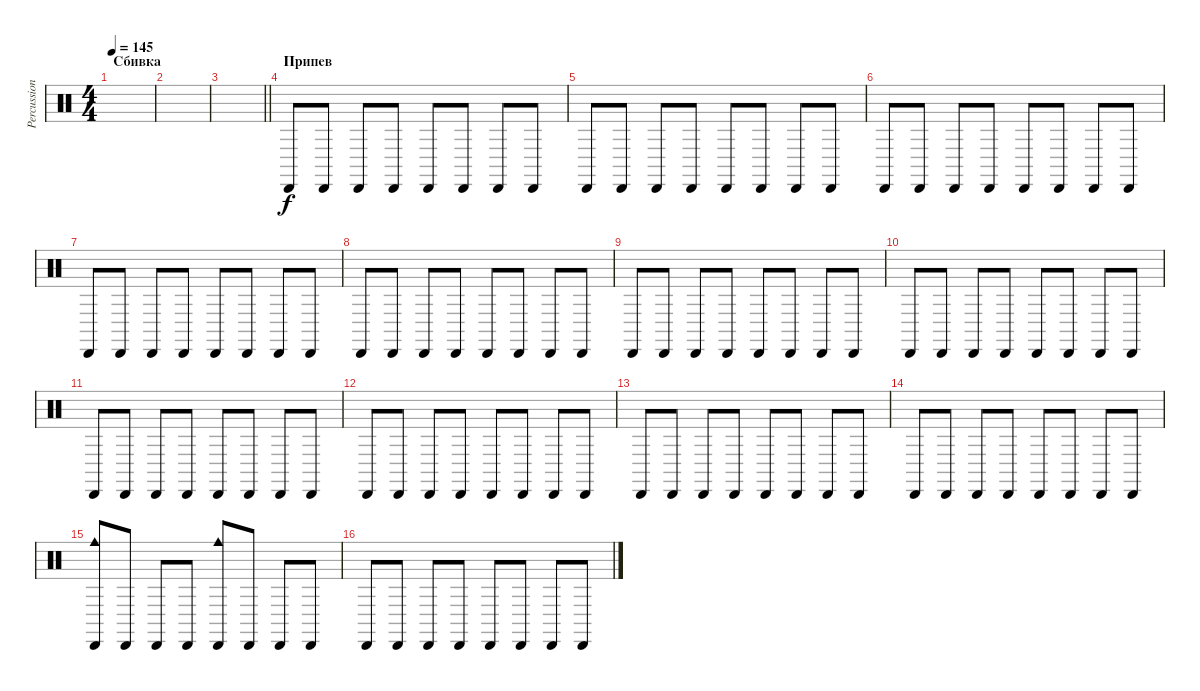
\track ("Percussion" "Percussion") {instrument percussion}
\staff {score}
\articulation defaults
\ts (4 4)
\section ("" "Сбивка")
\tempo 145
\clef neutral
\ks c
|
|
\barLineRight lightlight
|
\section ("" "Припев")
"Cabasa (hit)".8 "Cabasa (hit)".8 "Cabasa (hit)".8 "Cabasa (hit)".8 "Cabasa (hit)".8 "Cabasa (hit)".8 "Cabasa (hit)".8 "Cabasa (hit)".8 |
"Cabasa (hit)".8 "Cabasa (hit)".8 "Cabasa (hit)".8 "Cabasa (hit)".8 "Cabasa (hit)".8 "Cabasa (hit)".8 "Cabasa (hit)".8 "Cabasa (hit)".8 |
"Cabasa (hit)".8 "Cabasa (hit)".8 "Cabasa (hit)".8 "Cabasa (hit)".8 "Cabasa (hit)".8 "Cabasa (hit)".8 "Cabasa (hit)".8 "Cabasa (hit)".8 |
"Cabasa (hit)".8 "Cabasa (hit)".8 "Cabasa (hit)".8 "Cabasa (hit)".8 "Cabasa (hit)".8 "Cabasa (hit)".8 "Cabasa (hit)".8 "Cabasa (hit)".8 |
"Cabasa (hit)".8 "Cabasa (hit)".8 "Cabasa (hit)".8 "Cabasa (hit)".8 "Cabasa (hit)".8 "Cabasa (hit)".8 "Cabasa (hit)".8 "Cabasa (hit)".8 |
"Cabasa (hit)".8 "Cabasa (hit)".8 "Cabasa (hit)".8 "Cabasa (hit)".8 "Cabasa (hit)".8 "Cabasa (hit)".8 "Cabasa (hit)".8 "Cabasa (hit)".8 |
"Cabasa (hit)".8 "Cabasa (hit)".8 "Cabasa (hit)".8 "Cabasa (hit)".8 "Cabasa (hit)".8 "Cabasa (hit)".8 "Cabasa (hit)".8 "Cabasa (hit)".8 |
"Cabasa (hit)".8 "Cabasa (hit)".8 "Cabasa (hit)".8 "Cabasa (hit)".8 "Cabasa (hit)".8 "Cabasa (hit)".8 "Cabasa (hit)".8 "Cabasa (hit)".8 |
"Cabasa (hit)".8 "Cabasa (hit)".8 "Cabasa (hit)".8 "Cabasa (hit)".8 "Cabasa (hit)".8 "Cabasa (hit)".8 "Cabasa (hit)".8 "Cabasa (hit)".8 |
"Cabasa (hit)".8 "Cabasa (hit)".8 "Cabasa (hit)".8 "Cabasa (hit)".8 "Cabasa (hit)".8 "Cabasa (hit)".8 "Cabasa (hit)".8 "Cabasa (hit)".8 |
"Cabasa (hit)".8 "Cabasa (hit)".8 "Cabasa (hit)".8 "Cabasa (hit)".8 "Cabasa (hit)".8 "Cabasa (hit)".8 "Cabasa (hit)".8 "Cabasa (hit)".8 |
("Cabasa (hit)" "Cowbell medium (hit)").8 "Cabasa (hit)".8 "Cabasa (hit)".8 "Cabasa (hit)".8 ("Cabasa (hit)" "Cowbell medium (hit)").8 "Cabasa (hit)".8 "Cabasa (hit)".8 "Cabasa (hit)".8 |
"Cabasa (hit)".8 "Cabasa (hit)".8 "Cabasa (hit)".8 "Cabasa (hit)".8 "Cabasa (hit)".8 "Cabasa (hit)".8 "Cabasa (hit)".8 "Cabasa (hit)".8
